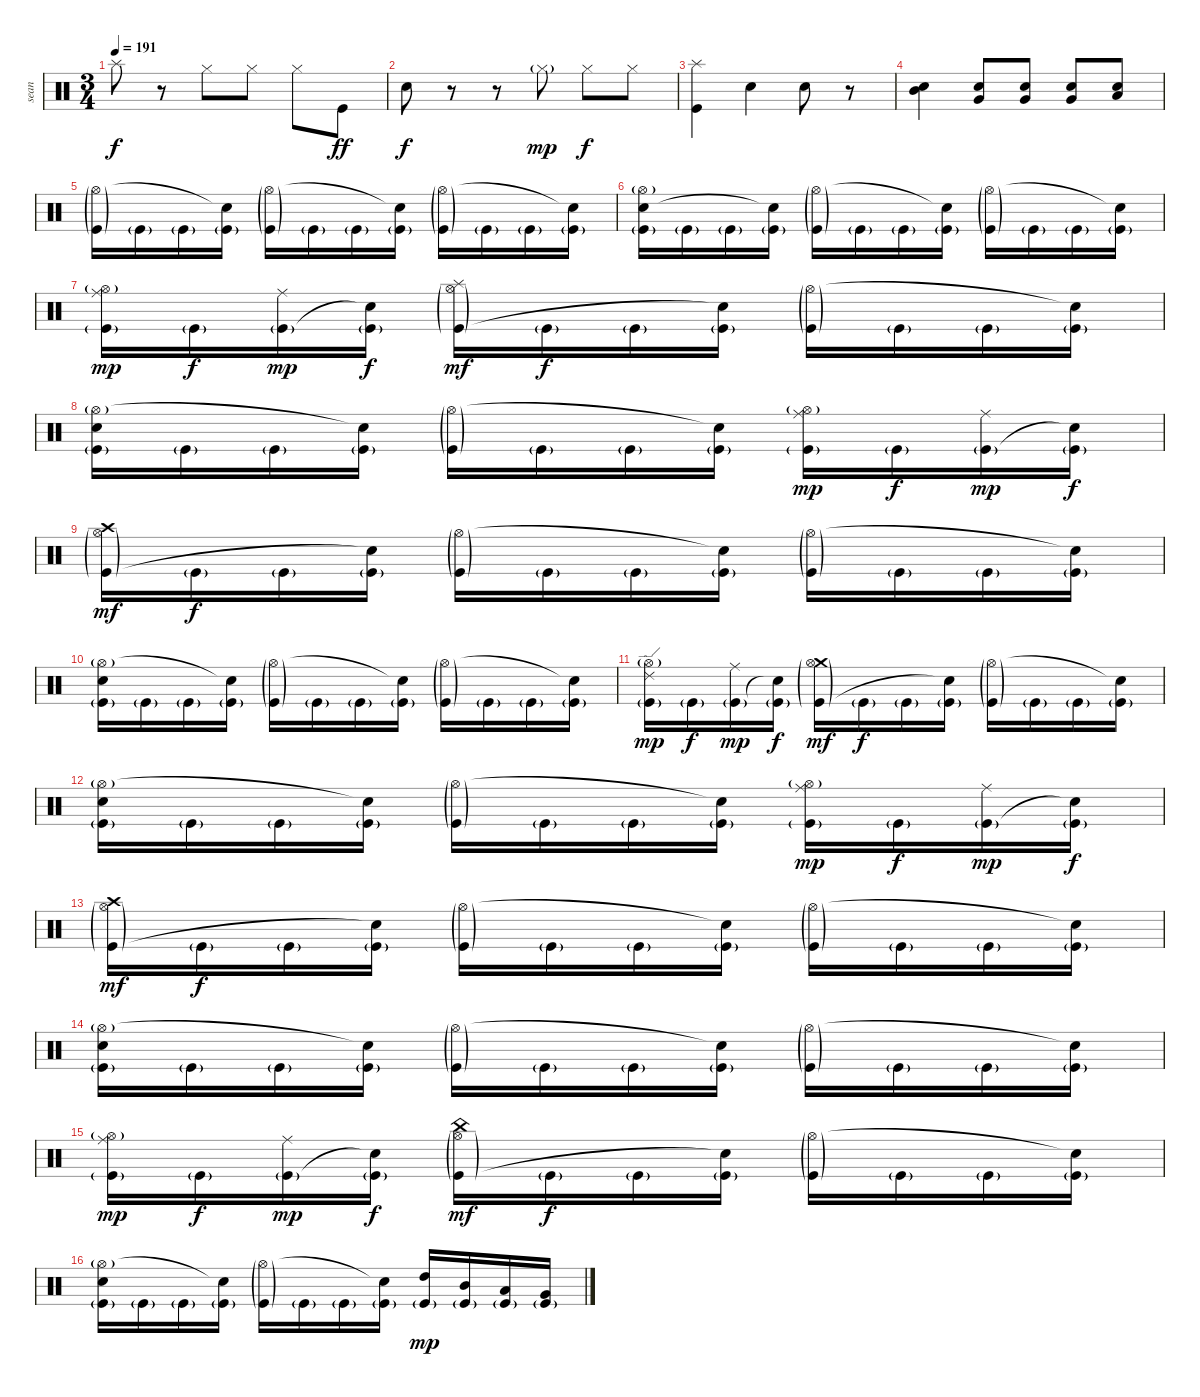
\track ("sean" "sean") {instrument percussion}
\staff {score}
\articulation defaults
\ts (3 4)
\tempo 191
\clef neutral
\ks c "Splash (hit)".8{dy f}
r.8 "Hi-Hat (closed)".8 "Hi-Hat (closed)".8 "Hi-Hat (closed)".8 "Kick (hit)".8{dy ff} |
"Electric Snare (hit)".8{dy f} r.8 r.8 "Hi-Hat (closed)"{g}.8{dy mp} "Hi-Hat (closed)".8{dy f} "Hi-Hat (closed)".8 |
("Splash (hit)" "Kick (hit)").4 "Electric Snare (hit)".4 "Electric Snare (hit)".8 r.8 |
("Electric Snare (hit)" "Mid Tom (hit)").4 ("Electric Snare (hit)" "Very Low Tom (hit)").8 ("Electric Snare (hit)" "Very Low Tom (hit)").8 ("Electric Snare (hit)" "Very Low Tom (hit)").8 ("Electric Snare (hit)" "Low Floor Tom (hit)").8 |
("Kick (hit)"{g} "Hi-Hat (open)"{g}).16{volume 12} "Kick (hit)"{g}.16 "Kick (hit)"{g}.16 ("Kick (hit)"{g} "Snare (hit)"{t}).16 ("Kick (hit)"{g} "Hi-Hat (open)"{g}).16 "Kick (hit)"{g}.16 "Kick (hit)"{g}.16 ("Kick (hit)"{g} "Snare (hit)"{t}).16 ("Kick (hit)"{g} "Hi-Hat (open)"{g}).16 "Kick (hit)"{g}.16 "Kick (hit)"{g}.16 ("Kick (hit)"{g} "Snare (hit)"{t}).16 |
("Kick (hit)"{g} "Electric Snare (hit)" "Hi-Hat (open)"{g}).16 "Kick (hit)"{g}.16 "Kick (hit)"{g}.16 ("Kick (hit)"{g} "Snare (hit)"{t}).16 ("Kick (hit)"{g} "Hi-Hat (open)"{g}).16 "Kick (hit)"{g}.16 "Kick (hit)"{g}.16 ("Kick (hit)"{g} "Snare (hit)"{t}).16 ("Kick (hit)"{g} "Hi-Hat (open)"{g}).16 "Kick (hit)"{g}.16 "Kick (hit)"{g}.16 ("Kick (hit)"{g} "Snare (hit)"{t}).16 |
("Ride (middle)" "Kick (hit)"{g} "Hi-Hat (open)"{g}).16{dy mp} "Kick (hit)"{g}.16{dy f} ("Ride (middle)" "Kick (hit)"{g}).16{dy mp} ("Kick (hit)"{g} "Snare (hit)"{t}).16{dy f} ("Splash (hit)" "Kick (hit)"{g} "Hi-Hat (open)"{g}).16{dy mf} "Kick (hit)"{g}.16{dy f} "Kick (hit)"{g}.16 ("Kick (hit)"{g} "Snare (hit)"{t}).16 ("Kick (hit)"{g} "Hi-Hat (open)"{g}).16 "Kick (hit)"{g}.16 "Kick (hit)"{g}.16 ("Kick (hit)"{g} "Snare (hit)"{t}).16 |
("Kick (hit)"{g} "Hi-Hat (open)"{g} "Electric Snare (hit)").16 "Kick (hit)"{g}.16 "Kick (hit)"{g}.16 ("Kick (hit)"{g} "Snare (hit)"{t}).16 ("Kick (hit)"{g} "Hi-Hat (open)"{g}).16 "Kick (hit)"{g}.16 "Kick (hit)"{g}.16 ("Kick (hit)"{g} "Snare (hit)"{t}).16 ("Ride (middle)" "Kick (hit)"{g} "Hi-Hat (open)"{g}).16{dy mp} "Kick (hit)"{g}.16{dy f} ("Ride (middle)" "Kick (hit)"{g}).16{dy mp} ("Kick (hit)"{g} "Snare (hit)"{t}).16{dy f} |
("Crash high (hit)" "Kick (hit)"{g} "Hi-Hat (open)"{g}).16{dy mf} "Kick (hit)"{g}.16{dy f} "Kick (hit)"{g}.16 ("Kick (hit)"{g} "Snare (hit)"{t}).16 ("Kick (hit)"{g} "Hi-Hat (open)"{g}).16 "Kick (hit)"{g}.16 "Kick (hit)"{g}.16 ("Kick (hit)"{g} "Snare (hit)"{t}).16 ("Kick (hit)"{g} "Hi-Hat (open)"{g}).16 "Kick (hit)"{g}.16 "Kick (hit)"{g}.16 ("Kick (hit)"{g} "Snare (hit)"{t}).16 |
("Kick (hit)"{g} "Hi-Hat (open)"{g} "Electric Snare (hit)").16 "Kick (hit)"{g}.16 "Kick (hit)"{g}.16 ("Kick (hit)"{g} "Snare (hit)"{t}).16 ("Kick (hit)"{g} "Hi-Hat (open)"{g}).16 "Kick (hit)"{g}.16 "Kick (hit)"{g}.16 ("Kick (hit)"{g} "Snare (hit)"{t}).16 ("Kick (hit)"{g} "Hi-Hat (open)"{g}).16 "Kick (hit)"{g}.16 "Kick (hit)"{g}.16 ("Kick (hit)"{g} "Snare (hit)"{t}).16 |
("Ride (edge) 2" "Kick (hit)"{g} "Hi-Hat (open)"{g}).16{dy mp} "Kick (hit)"{g}.16{dy f} ("Ride (middle)" "Kick (hit)"{g}).16{dy mp} ("Kick (hit)"{g} "Snare (hit)"{t}).16{dy f} ("Crash medium (hit)" "Kick (hit)"{g} "Hi-Hat (open)"{g}).16{dy mf} "Kick (hit)"{g}.16{dy f} "Kick (hit)"{g}.16 ("Kick (hit)"{g} "Snare (hit)"{t}).16 ("Kick (hit)"{g} "Hi-Hat (open)"{g}).16 "Kick (hit)"{g}.16 "Kick (hit)"{g}.16 ("Kick (hit)"{g} "Snare (hit)"{t}).16 |
("Kick (hit)"{g} "Hi-Hat (open)"{g} "Electric Snare (hit)").16 "Kick (hit)"{g}.16 "Kick (hit)"{g}.16 ("Kick (hit)"{g} "Snare (hit)"{t}).16 ("Kick (hit)"{g} "Hi-Hat (open)"{g}).16 "Kick (hit)"{g}.16 "Kick (hit)"{g}.16 ("Kick (hit)"{g} "Snare (hit)"{t}).16 ("Ride (middle)" "Kick (hit)"{g} "Hi-Hat (open)"{g}).16{dy mp} "Kick (hit)"{g}.16{dy f} ("Ride (middle)" "Kick (hit)"{g}).16{dy mp} ("Kick (hit)"{g} "Snare (hit)"{t}).16{dy f} |
("Crash high (hit)" "Kick (hit)"{g} "Hi-Hat (open)"{g}).16{dy mf} "Kick (hit)"{g}.16{dy f} "Kick (hit)"{g}.16 ("Kick (hit)"{g} "Snare (hit)"{t}).16 ("Kick (hit)"{g} "Hi-Hat (open)"{g}).16 "Kick (hit)"{g}.16 "Kick (hit)"{g}.16 ("Kick (hit)"{g} "Snare (hit)"{t}).16 ("Kick (hit)"{g} "Hi-Hat (open)"{g}).16 "Kick (hit)"{g}.16 "Kick (hit)"{g}.16 ("Kick (hit)"{g} "Snare (hit)"{t}).16 |
("Kick (hit)"{g} "Hi-Hat (open)"{g} "Electric Snare (hit)").16 "Kick (hit)"{g}.16 "Kick (hit)"{g}.16 ("Kick (hit)"{g} "Snare (hit)"{t}).16 ("Kick (hit)"{g} "Hi-Hat (open)"{g}).16 "Kick (hit)"{g}.16 "Kick (hit)"{g}.16 ("Kick (hit)"{g} "Snare (hit)"{t}).16 ("Kick (hit)"{g} "Hi-Hat (open)"{g}).16 "Kick (hit)"{g}.16 "Kick (hit)"{g}.16 ("Kick (hit)"{g} "Snare (hit)"{t}).16 |
("Ride (middle)" "Kick (hit)"{g} "Hi-Hat (open)"{g}).16{dy mp} "Kick (hit)"{g}.16{dy f} ("Ride (middle)" "Kick (hit)"{g}).16{dy mp} ("Kick (hit)"{g} "Snare (hit)"{t}).16{dy f} ("China (hit)" "Kick (hit)"{g} "Hi-Hat (open)"{g}).16{dy mf} "Kick (hit)"{g}.16{dy f} "Kick (hit)"{g}.16 ("Kick (hit)"{g} "Snare (hit)"{t}).16 ("Kick (hit)"{g} "Hi-Hat (open)"{g}).16 "Kick (hit)"{g}.16 "Kick (hit)"{g}.16 ("Kick (hit)"{g} "Snare (hit)"{t}).16 |
("Kick (hit)"{g} "Hi-Hat (open)"{g} "Electric Snare (hit)").16 "Kick (hit)"{g}.16 "Kick (hit)"{g}.16 ("Kick (hit)"{g} "Snare (hit)"{t}).16 ("Kick (hit)"{g} "Hi-Hat (open)"{g}).16 "Kick (hit)"{g}.16 "Kick (hit)"{g}.16 ("Kick (hit)"{g} "Snare (hit)"{t}).16 ("High Tom (hit)" "Kick (hit)"{g}).16{dy mp} ("Mid Tom (hit)" "Kick (hit)"{g}).16 ("Low Tom (hit)" "Kick (hit)"{g}).16 ("Very Low Tom (hit)" "Kick (hit)"{g}).16
